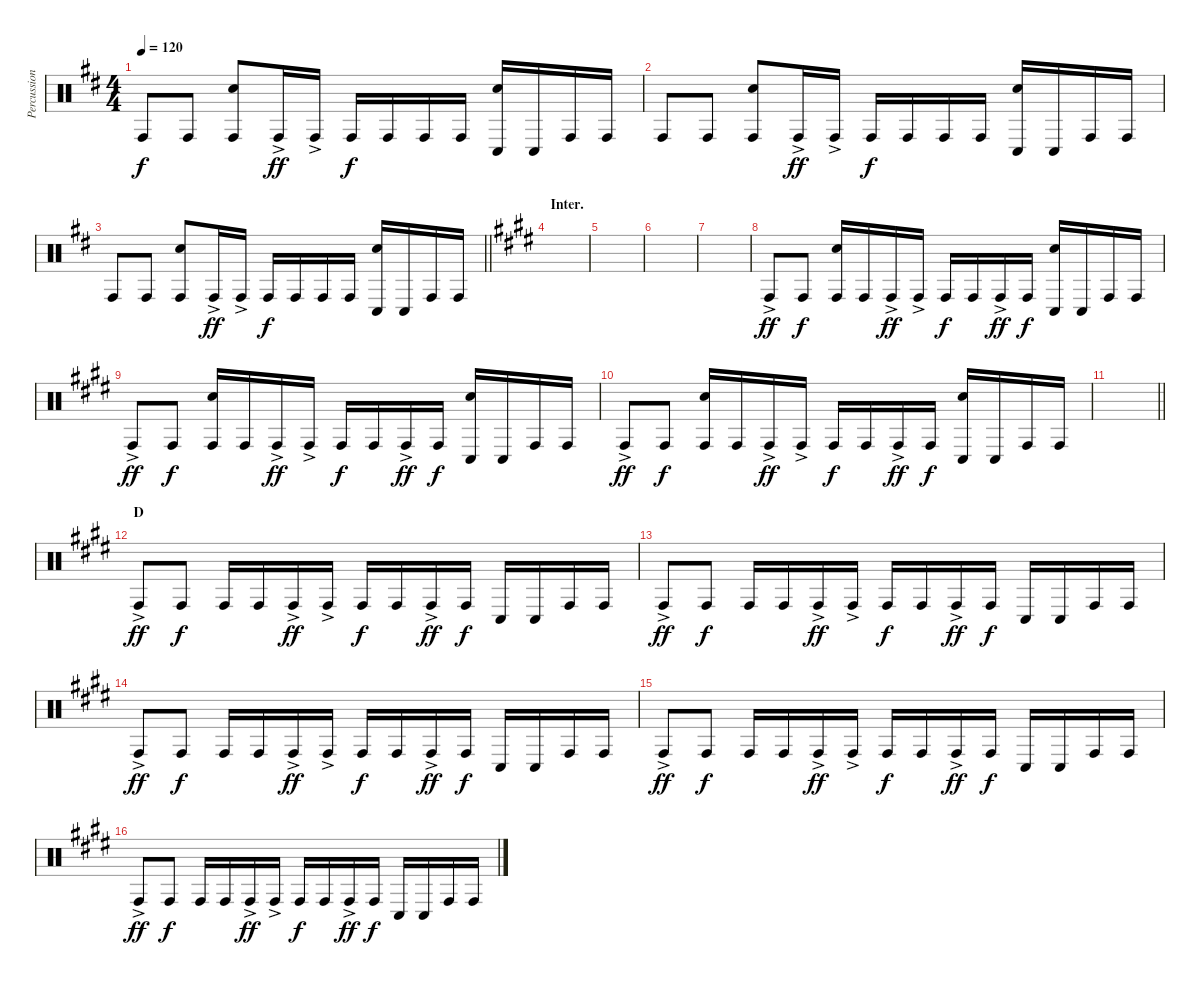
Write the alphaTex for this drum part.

\track ("Percussion" "Percussion") {instrument percussion}
\staff {score}
\articulation defaults
\ts (4 4)
\tempo 120
\clef neutral
\ks d "Conga high (hit)".8{dy f} "Conga high (hit)".8
("Conga high (hit)" "Hand Clap (hit)").8 "Conga high (hit)"{ac}.16{dy ff} "Conga high (hit)"{ac}.16 "Conga high (hit)".16{dy f} "Conga high (hit)".16 "Conga high (hit)".16 "Conga high (hit)".16 ("Hand Clap (hit)" "Conga low (hit)").16 "Conga low (hit)".16 "Conga high (hit)".16 "Conga high (hit)".16 |
"Conga high (hit)".8 "Conga high (hit)".8 ("Conga high (hit)" "Hand Clap (hit)").8 "Conga high (hit)"{ac}.16{dy ff} "Conga high (hit)"{ac}.16 "Conga high (hit)".16{dy f} "Conga high (hit)".16 "Conga high (hit)".16 "Conga high (hit)".16 ("Hand Clap (hit)" "Conga low (hit)").16 "Conga low (hit)".16 "Conga high (hit)".16 "Conga high (hit)".16 |
\barLineRight lightlight "Conga high (hit)".8 "Conga high (hit)".8
("Conga high (hit)" "Hand Clap (hit)").8 "Conga high (hit)"{ac}.16{dy ff} "Conga high (hit)"{ac}.16 "Conga high (hit)".16{dy f} "Conga high (hit)".16 "Conga high (hit)".16 "Conga high (hit)".16 ("Hand Clap (hit)" "Conga low (hit)").16 "Conga low (hit)".16 "Conga high (hit)".16 "Conga high (hit)".16 |
\section ("" "Inter.")
\ks e
|
|
|
|
"Conga high (hit)"{ac}.8{dy ff} "Conga high (hit)".8{dy f} ("Conga high (hit)" "Hand Clap (hit)").16 "Conga high (hit)".16 "Conga high (hit)"{ac}.16{dy ff} "Conga high (hit)"{ac}.16 "Conga high (hit)".16{dy f} "Conga high (hit)".16 "Conga high (hit)"{ac}.16{dy ff} "Conga high (hit)".16{dy f} ("Conga low (hit)" "Hand Clap (hit)").16 "Conga low (hit)".16 "Conga high (hit)".16 "Conga high (hit)".16 |
"Conga high (hit)"{ac}.8{dy ff} "Conga high (hit)".8{dy f} ("Conga high (hit)" "Hand Clap (hit)").16 "Conga high (hit)".16 "Conga high (hit)"{ac}.16{dy ff} "Conga high (hit)"{ac}.16 "Conga high (hit)".16{dy f} "Conga high (hit)".16 "Conga high (hit)"{ac}.16{dy ff} "Conga high (hit)".16{dy f} ("Conga low (hit)" "Hand Clap (hit)").16 "Conga low (hit)".16 "Conga high (hit)".16 "Conga high (hit)".16 |
"Conga high (hit)"{ac}.8{dy ff} "Conga high (hit)".8{dy f} ("Conga high (hit)" "Hand Clap (hit)").16 "Conga high (hit)".16 "Conga high (hit)"{ac}.16{dy ff} "Conga high (hit)"{ac}.16 "Conga high (hit)".16{dy f} "Conga high (hit)".16 "Conga high (hit)"{ac}.16{dy ff} "Conga high (hit)".16{dy f} ("Conga low (hit)" "Hand Clap (hit)").16 "Conga low (hit)".16 "Conga high (hit)".16 "Conga high (hit)".16 |
\barLineRight lightlight
|
\section ("" "D")
"Conga high (hit)"{ac}.8{dy ff} "Conga high (hit)".8{dy f} "Conga high (hit)".16 "Conga high (hit)".16 "Conga high (hit)"{ac}.16{dy ff} "Conga high (hit)"{ac}.16 "Conga high (hit)".16{dy f} "Conga high (hit)".16 "Conga high (hit)"{ac}.16{dy ff} "Conga high (hit)".16{dy f} "Conga low (hit)".16 "Conga low (hit)".16 "Conga high (hit)".16 "Conga high (hit)".16 |
"Conga high (hit)"{ac}.8{dy ff} "Conga high (hit)".8{dy f} "Conga high (hit)".16 "Conga high (hit)".16 "Conga high (hit)"{ac}.16{dy ff} "Conga high (hit)"{ac}.16 "Conga high (hit)".16{dy f} "Conga high (hit)".16 "Conga high (hit)"{ac}.16{dy ff} "Conga high (hit)".16{dy f} "Conga low (hit)".16 "Conga low (hit)".16 "Conga high (hit)".16 "Conga high (hit)".16 |
"Conga high (hit)"{ac}.8{dy ff} "Conga high (hit)".8{dy f} "Conga high (hit)".16 "Conga high (hit)".16 "Conga high (hit)"{ac}.16{dy ff} "Conga high (hit)"{ac}.16 "Conga high (hit)".16{dy f} "Conga high (hit)".16 "Conga high (hit)"{ac}.16{dy ff} "Conga high (hit)".16{dy f} "Conga low (hit)".16 "Conga low (hit)".16 "Conga high (hit)".16 "Conga high (hit)".16 |
"Conga high (hit)"{ac}.8{dy ff} "Conga high (hit)".8{dy f} "Conga high (hit)".16 "Conga high (hit)".16 "Conga high (hit)"{ac}.16{dy ff} "Conga high (hit)"{ac}.16 "Conga high (hit)".16{dy f} "Conga high (hit)".16 "Conga high (hit)"{ac}.16{dy ff} "Conga high (hit)".16{dy f} "Conga low (hit)".16 "Conga low (hit)".16 "Conga high (hit)".16 "Conga high (hit)".16 |
"Conga high (hit)"{ac}.8{dy ff} "Conga high (hit)".8{dy f} "Conga high (hit)".16 "Conga high (hit)".16 "Conga high (hit)"{ac}.16{dy ff} "Conga high (hit)"{ac}.16 "Conga high (hit)".16{dy f} "Conga high (hit)".16 "Conga high (hit)"{ac}.16{dy ff} "Conga high (hit)".16{dy f} "Conga low (hit)".16 "Conga low (hit)".16 "Conga high (hit)".16 "Conga high (hit)".16
